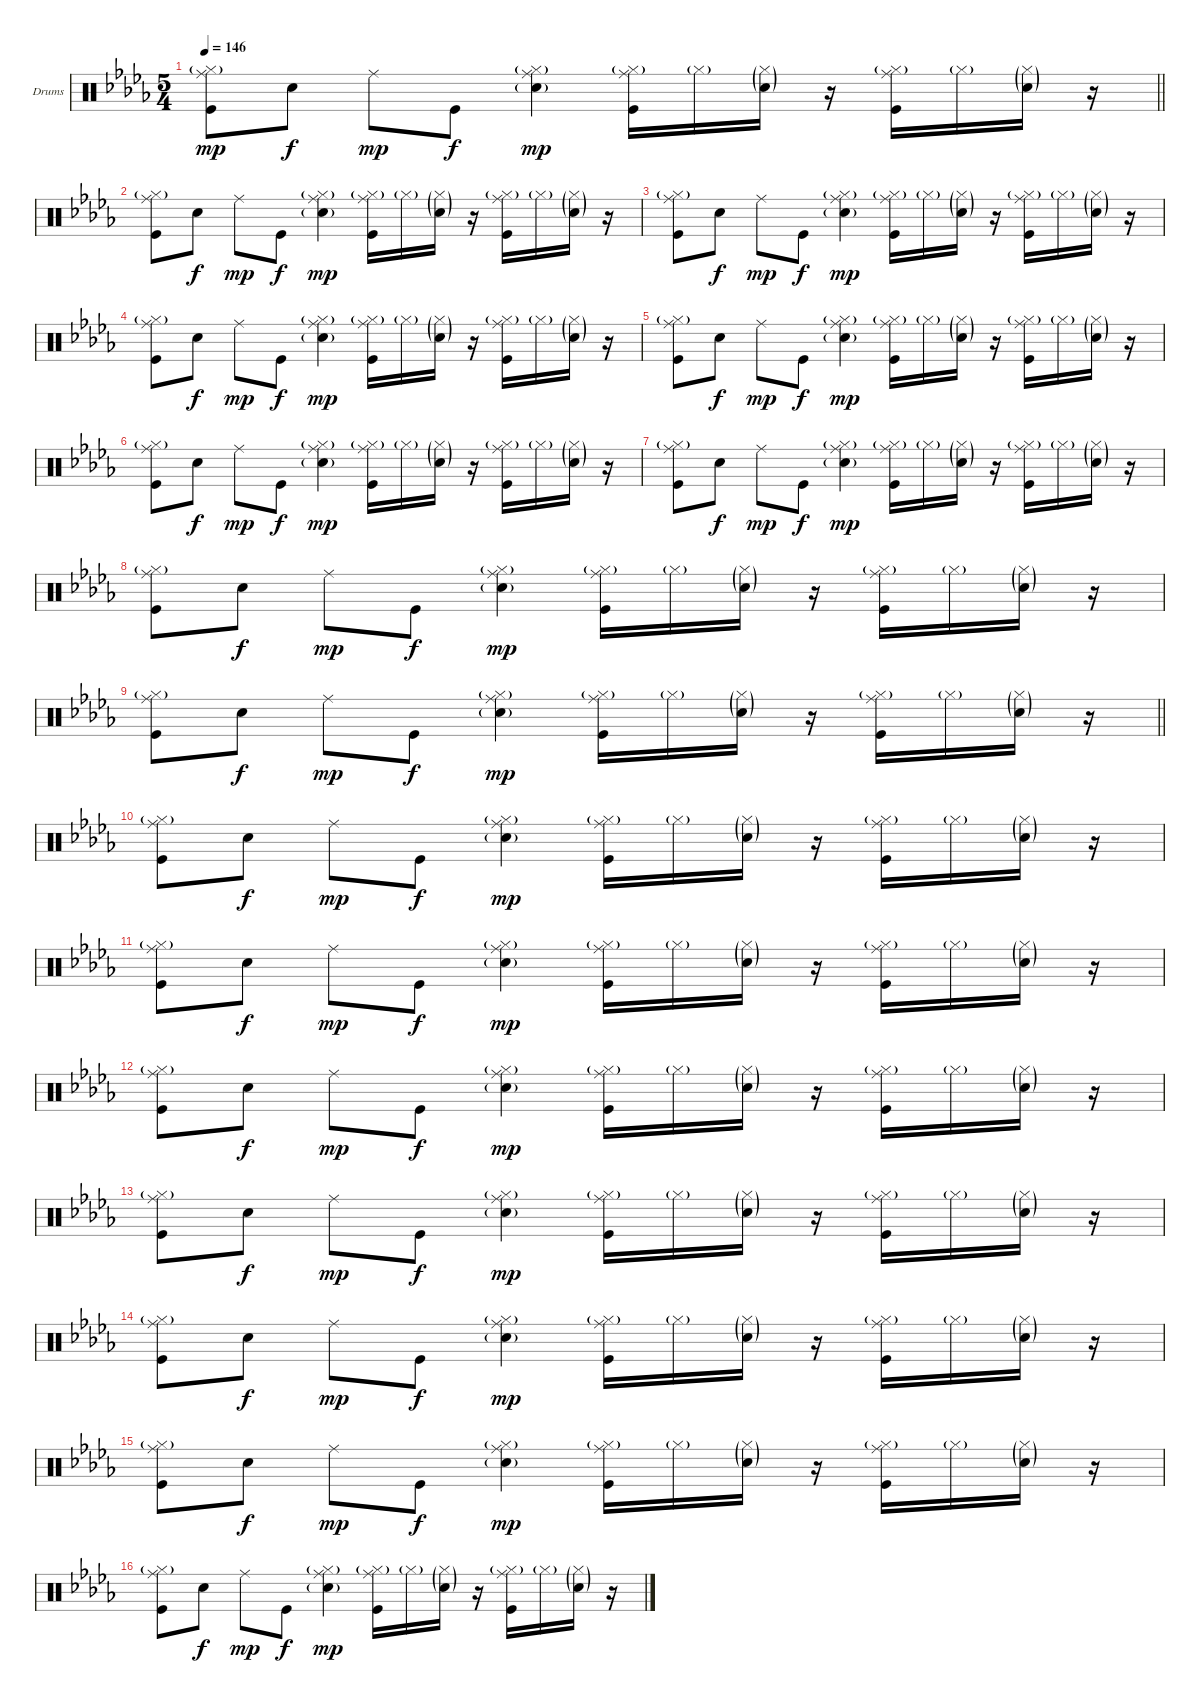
\bracketExtendMode groupsimilarinstruments
\firstSystemTrackNameOrientation horizontal
\otherSystemsTrackNameOrientation horizontal
\track ("Drumkit" "Drums") {instrument percussion}
\staff {score}
\articulation defaults
\ts (5 4)
\tempo 146
\clef neutral
\barLineRight lightlight
\ks db
("Hi-Hat (closed)"{g} "Ride (middle)" "Kick (hit)").8{dy mp} "Snare (hit) 2".8{dy f} "Ride (middle)".8{dy mp} "Kick (hit)".8{dy f} ("Hi-Hat (closed)"{g} "Ride (middle)" "Snare (hit) 2"{g}).4{dy mp} ("Hi-Hat (closed)"{g} "Ride (middle)" "Kick (hit)").16 "Hi-Hat (closed)"{g}.16 ("Hi-Hat (closed)"{g} "Snare (hit) 2"{g}).16 r.16 ("Hi-Hat (closed)"{g} "Ride (middle)" "Kick (hit)").16 "Hi-Hat (closed)"{g}.16 ("Hi-Hat (closed)"{g} "Snare (hit) 2"{g}).16 r.16 |
("Hi-Hat (closed)"{g} "Ride (middle)" "Kick (hit)").8 "Snare (hit) 2".8{dy f} "Ride (middle)".8{dy mp} "Kick (hit)".8{dy f} ("Hi-Hat (closed)"{g} "Ride (middle)" "Snare (hit) 2"{g}).4{dy mp} ("Hi-Hat (closed)"{g} "Ride (middle)" "Kick (hit)").16 "Hi-Hat (closed)"{g}.16 ("Hi-Hat (closed)"{g} "Snare (hit) 2"{g}).16 r.16 ("Hi-Hat (closed)"{g} "Ride (middle)" "Kick (hit)").16 "Hi-Hat (closed)"{g}.16 ("Hi-Hat (closed)"{g} "Snare (hit) 2"{g}).16 r.16 |
("Hi-Hat (closed)"{g} "Ride (middle)" "Kick (hit)").8 "Snare (hit) 2".8{dy f} "Ride (middle)".8{dy mp} "Kick (hit)".8{dy f} ("Hi-Hat (closed)"{g} "Ride (middle)" "Snare (hit) 2"{g}).4{dy mp} ("Hi-Hat (closed)"{g} "Ride (middle)" "Kick (hit)").16 "Hi-Hat (closed)"{g}.16 ("Hi-Hat (closed)"{g} "Snare (hit) 2"{g}).16 r.16 ("Hi-Hat (closed)"{g} "Ride (middle)" "Kick (hit)").16 "Hi-Hat (closed)"{g}.16 ("Hi-Hat (closed)"{g} "Snare (hit) 2"{g}).16 r.16 |
("Hi-Hat (closed)"{g} "Ride (middle)" "Kick (hit)").8 "Snare (hit) 2".8{dy f} "Ride (middle)".8{dy mp} "Kick (hit)".8{dy f} ("Hi-Hat (closed)"{g} "Ride (middle)" "Snare (hit) 2"{g}).4{dy mp} ("Hi-Hat (closed)"{g} "Ride (middle)" "Kick (hit)").16 "Hi-Hat (closed)"{g}.16 ("Hi-Hat (closed)"{g} "Snare (hit) 2"{g}).16 r.16 ("Hi-Hat (closed)"{g} "Ride (middle)" "Kick (hit)").16 "Hi-Hat (closed)"{g}.16 ("Hi-Hat (closed)"{g} "Snare (hit) 2"{g}).16 r.16 |
("Hi-Hat (closed)"{g} "Ride (middle)" "Kick (hit)").8 "Snare (hit) 2".8{dy f} "Ride (middle)".8{dy mp} "Kick (hit)".8{dy f} ("Hi-Hat (closed)"{g} "Ride (middle)" "Snare (hit) 2"{g}).4{dy mp} ("Hi-Hat (closed)"{g} "Ride (middle)" "Kick (hit)").16 "Hi-Hat (closed)"{g}.16 ("Hi-Hat (closed)"{g} "Snare (hit) 2"{g}).16 r.16 ("Hi-Hat (closed)"{g} "Ride (middle)" "Kick (hit)").16 "Hi-Hat (closed)"{g}.16 ("Hi-Hat (closed)"{g} "Snare (hit) 2"{g}).16 r.16 |
("Hi-Hat (closed)"{g} "Ride (middle)" "Kick (hit)").8 "Snare (hit) 2".8{dy f} "Ride (middle)".8{dy mp} "Kick (hit)".8{dy f} ("Hi-Hat (closed)"{g} "Ride (middle)" "Snare (hit) 2"{g}).4{dy mp} ("Hi-Hat (closed)"{g} "Ride (middle)" "Kick (hit)").16 "Hi-Hat (closed)"{g}.16 ("Hi-Hat (closed)"{g} "Snare (hit) 2"{g}).16 r.16 ("Hi-Hat (closed)"{g} "Ride (middle)" "Kick (hit)").16 "Hi-Hat (closed)"{g}.16 ("Hi-Hat (closed)"{g} "Snare (hit) 2"{g}).16 r.16 |
("Hi-Hat (closed)"{g} "Ride (middle)" "Kick (hit)").8 "Snare (hit) 2".8{dy f} "Ride (middle)".8{dy mp} "Kick (hit)".8{dy f} ("Hi-Hat (closed)"{g} "Ride (middle)" "Snare (hit) 2"{g}).4{dy mp} ("Hi-Hat (closed)"{g} "Ride (middle)" "Kick (hit)").16 "Hi-Hat (closed)"{g}.16 ("Hi-Hat (closed)"{g} "Snare (hit) 2"{g}).16 r.16 ("Hi-Hat (closed)"{g} "Ride (middle)" "Kick (hit)").16 "Hi-Hat (closed)"{g}.16 ("Hi-Hat (closed)"{g} "Snare (hit) 2"{g}).16 r.16 |
("Hi-Hat (closed)"{g} "Ride (middle)" "Kick (hit)").8 "Snare (hit) 2".8{dy f} "Ride (middle)".8{dy mp} "Kick (hit)".8{dy f} ("Hi-Hat (closed)"{g} "Ride (middle)" "Snare (hit) 2"{g}).4{dy mp} ("Hi-Hat (closed)"{g} "Ride (middle)" "Kick (hit)").16 "Hi-Hat (closed)"{g}.16 ("Hi-Hat (closed)"{g} "Snare (hit) 2"{g}).16 r.16 ("Hi-Hat (closed)"{g} "Ride (middle)" "Kick (hit)").16 "Hi-Hat (closed)"{g}.16 ("Hi-Hat (closed)"{g} "Snare (hit) 2"{g}).16 r.16 |
\barLineRight lightlight
("Hi-Hat (closed)"{g} "Ride (middle)" "Kick (hit)").8 "Snare (hit) 2".8{dy f} "Ride (middle)".8{dy mp} "Kick (hit)".8{dy f} ("Hi-Hat (closed)"{g} "Ride (middle)" "Snare (hit) 2"{g}).4{dy mp} ("Hi-Hat (closed)"{g} "Ride (middle)" "Kick (hit)").16 "Hi-Hat (closed)"{g}.16 ("Hi-Hat (closed)"{g} "Snare (hit) 2"{g}).16 r.16 ("Hi-Hat (closed)"{g} "Ride (middle)" "Kick (hit)").16 "Hi-Hat (closed)"{g}.16 ("Hi-Hat (closed)"{g} "Snare (hit) 2"{g}).16 r.16 |
("Hi-Hat (closed)"{g} "Ride (middle)" "Kick (hit)").8 "Snare (hit) 2".8{dy f} "Ride (middle)".8{dy mp} "Kick (hit)".8{dy f} ("Hi-Hat (closed)"{g} "Ride (middle)" "Snare (hit) 2"{g}).4{dy mp} ("Hi-Hat (closed)"{g} "Ride (middle)" "Kick (hit)").16 "Hi-Hat (closed)"{g}.16 ("Hi-Hat (closed)"{g} "Snare (hit) 2"{g}).16 r.16 ("Hi-Hat (closed)"{g} "Ride (middle)" "Kick (hit)").16 "Hi-Hat (closed)"{g}.16 ("Hi-Hat (closed)"{g} "Snare (hit) 2"{g}).16 r.16 |
("Hi-Hat (closed)"{g} "Ride (middle)" "Kick (hit)").8 "Snare (hit) 2".8{dy f} "Ride (middle)".8{dy mp} "Kick (hit)".8{dy f} ("Hi-Hat (closed)"{g} "Ride (middle)" "Snare (hit) 2"{g}).4{dy mp} ("Hi-Hat (closed)"{g} "Ride (middle)" "Kick (hit)").16 "Hi-Hat (closed)"{g}.16 ("Hi-Hat (closed)"{g} "Snare (hit) 2"{g}).16 r.16 ("Hi-Hat (closed)"{g} "Ride (middle)" "Kick (hit)").16 "Hi-Hat (closed)"{g}.16 ("Hi-Hat (closed)"{g} "Snare (hit) 2"{g}).16 r.16 |
("Hi-Hat (closed)"{g} "Ride (middle)" "Kick (hit)").8 "Snare (hit) 2".8{dy f} "Ride (middle)".8{dy mp} "Kick (hit)".8{dy f} ("Hi-Hat (closed)"{g} "Ride (middle)" "Snare (hit) 2"{g}).4{dy mp} ("Hi-Hat (closed)"{g} "Ride (middle)" "Kick (hit)").16 "Hi-Hat (closed)"{g}.16 ("Hi-Hat (closed)"{g} "Snare (hit) 2"{g}).16 r.16 ("Hi-Hat (closed)"{g} "Ride (middle)" "Kick (hit)").16 "Hi-Hat (closed)"{g}.16 ("Hi-Hat (closed)"{g} "Snare (hit) 2"{g}).16 r.16 |
("Hi-Hat (closed)"{g} "Ride (middle)" "Kick (hit)").8 "Snare (hit) 2".8{dy f} "Ride (middle)".8{dy mp} "Kick (hit)".8{dy f} ("Hi-Hat (closed)"{g} "Ride (middle)" "Snare (hit) 2"{g}).4{dy mp} ("Hi-Hat (closed)"{g} "Ride (middle)" "Kick (hit)").16 "Hi-Hat (closed)"{g}.16 ("Hi-Hat (closed)"{g} "Snare (hit) 2"{g}).16 r.16 ("Hi-Hat (closed)"{g} "Ride (middle)" "Kick (hit)").16 "Hi-Hat (closed)"{g}.16 ("Hi-Hat (closed)"{g} "Snare (hit) 2"{g}).16 r.16 |
("Hi-Hat (closed)"{g} "Ride (middle)" "Kick (hit)").8 "Snare (hit) 2".8{dy f} "Ride (middle)".8{dy mp} "Kick (hit)".8{dy f} ("Hi-Hat (closed)"{g} "Ride (middle)" "Snare (hit) 2"{g}).4{dy mp} ("Hi-Hat (closed)"{g} "Ride (middle)" "Kick (hit)").16 "Hi-Hat (closed)"{g}.16 ("Hi-Hat (closed)"{g} "Snare (hit) 2"{g}).16 r.16 ("Hi-Hat (closed)"{g} "Ride (middle)" "Kick (hit)").16 "Hi-Hat (closed)"{g}.16 ("Hi-Hat (closed)"{g} "Snare (hit) 2"{g}).16 r.16 |
("Hi-Hat (closed)"{g} "Ride (middle)" "Kick (hit)").8 "Snare (hit) 2".8{dy f} "Ride (middle)".8{dy mp} "Kick (hit)".8{dy f} ("Hi-Hat (closed)"{g} "Ride (middle)" "Snare (hit) 2"{g}).4{dy mp} ("Hi-Hat (closed)"{g} "Ride (middle)" "Kick (hit)").16 "Hi-Hat (closed)"{g}.16 ("Hi-Hat (closed)"{g} "Snare (hit) 2"{g}).16 r.16 ("Hi-Hat (closed)"{g} "Ride (middle)" "Kick (hit)").16 "Hi-Hat (closed)"{g}.16 ("Hi-Hat (closed)"{g} "Snare (hit) 2"{g}).16 r.16 |
("Hi-Hat (closed)"{g} "Ride (middle)" "Kick (hit)").8 "Snare (hit) 2".8{dy f} "Ride (middle)".8{dy mp} "Kick (hit)".8{dy f} ("Hi-Hat (closed)"{g} "Ride (middle)" "Snare (hit) 2"{g}).4{dy mp} ("Hi-Hat (closed)"{g} "Ride (middle)" "Kick (hit)").16 "Hi-Hat (closed)"{g}.16 ("Hi-Hat (closed)"{g} "Snare (hit) 2"{g}).16 r.16 ("Hi-Hat (closed)"{g} "Ride (middle)" "Kick (hit)").16 "Hi-Hat (closed)"{g}.16 ("Hi-Hat (closed)"{g} "Snare (hit) 2"{g}).16 r.16
